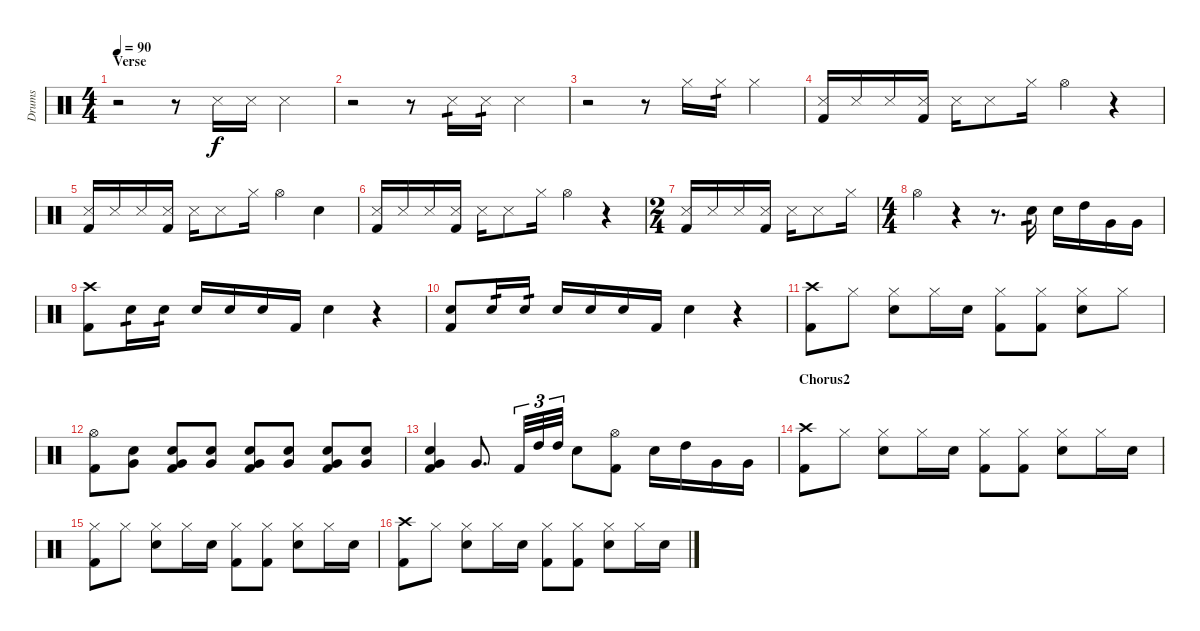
\track ("Drums" "Drums") {instrument percussion}
\staff {score}
\articulation defaults
\ts (4 4)
\section ("" "Verse")
\tempo 90
\clef neutral
\ks c
r.2{dy f} r.8 "Snare (side stick) 3".16 "Snare (side stick) 3".16 "Snare (side stick) 3".4 |
r.2 r.8 "Snare (side stick) 3".16{tp 1} "Snare (side stick) 3".16{tp 1} "Snare (side stick) 3".4 |
r.2 r.8 "Hi-Hat (closed)".16 "Hi-Hat (closed)".16{tp 1} "Hi-Hat (closed)".4 |
("Snare (side stick) 3" "Kick (hit) 2").16 "Snare (side stick) 3".16 "Metronome (hit)".16 ("Snare (side stick) 3" "Kick (hit) 2").16 "Snare (side stick) 3".16 "Metronome (hit)".8 "Hi-Hat (closed)".16 "Hi-Hat (open)".4 r.4 |
("Snare (side stick) 3" "Kick (hit) 2").16 "Snare (side stick) 3".16 "Metronome (hit)".16 ("Snare (side stick) 3" "Kick (hit) 2").16 "Snare (side stick) 3".16 "Metronome (hit)".8 "Hi-Hat (closed)".16 "Hi-Hat (open)".4 "Snare (hit) 2".4 |
("Snare (side stick) 3" "Kick (hit) 2").16 "Snare (side stick) 3".16 "Metronome (hit)".16 ("Snare (side stick) 3" "Kick (hit) 2").16 "Snare (side stick) 3".16 "Metronome (hit)".8 "Hi-Hat (closed)".16 "Hi-Hat (open)".4 r.4 |
\ts (2 4)
("Snare (side stick) 3" "Kick (hit) 2").16 "Snare (side stick) 3".16 "Metronome (hit)".16 ("Snare (side stick) 3" "Kick (hit) 2").16 "Snare (side stick) 3".16 "Metronome (hit)".8 "Hi-Hat (closed)".16 |
\ts (4 4)
"Hi-Hat (open)".4 r.4 r.8{d} "Snare (hit) 2".16{tp 1} "Snare (hit) 2".16 "High Tom (hit)".16 "Very Low Tom (hit)".16 "Very Low Tom (hit)".16 |
("Crash high (hit)" "Kick (hit) 2").8 "Snare (hit) 2".16{tp 1} "Snare (hit) 2".16{tp 1} "Snare (hit) 2".16 "Snare (hit) 2".16 "Snare (hit) 2".16 "Kick (hit) 2".16 "Snare (hit) 2".4 r.4 |
("Snare (hit) 2" "Kick (hit) 2").8 "Snare (hit) 2".16{tp 1} "Snare (hit) 2".16{tp 1} "Snare (hit) 2".16 "Snare (hit) 2".16 "Snare (hit) 2".16 "Kick (hit) 2".16 "Snare (hit) 2".4 r.4 |
("Crash high (hit)" "Kick (hit) 2").8 "Hi-Hat (closed)".8 ("Hi-Hat (closed)" "Snare (hit) 2").8 "Hi-Hat (closed)".16 "Snare (hit) 2".16 ("Hi-Hat (closed)" "Kick (hit) 2").8 ("Hi-Hat (closed)" "Kick (hit) 2").8 ("Hi-Hat (closed)" "Snare (hit) 2").8 "Hi-Hat (closed)".8 |
("Hi-Hat (open)" "Kick (hit) 2").8 ("Snare (hit) 2" "Very Low Tom (hit)").8 ("Snare (hit) 2" "Very Low Tom (hit)" "Kick (hit) 2").8 ("Snare (hit) 2" "Very Low Tom (hit)").8 ("Snare (hit) 2" "Very Low Tom (hit)" "Kick (hit) 2").8 ("Snare (hit) 2" "Very Low Tom (hit)").8 ("Snare (hit) 2" "Very Low Tom (hit)" "Kick (hit) 2").8 ("Snare (hit) 2" "Very Low Tom (hit)").8 |
("Snare (hit) 2" "Very Low Tom (hit)" "Kick (hit) 2").4 "Very Low Tom (hit)".8{d} "Kick (hit) 2".32{tu (3 2)} "High Tom (hit)".32{tu (3 2)} "High Tom (hit)".32{tu (3 2)} "Snare (hit) 2".8 ("Hi-Hat (open)" "Kick (hit) 2").8 "Snare (hit) 2".16 "High Tom (hit)".16 "Very Low Tom (hit)".16 "Very Low Tom (hit)".16 |
\section ("" "Chorus2")
("Crash high (hit)" "Kick (hit) 2").8 "Hi-Hat (closed)".8 ("Hi-Hat (closed)" "Snare (hit) 2").8 "Hi-Hat (closed)".16 "Snare (hit) 2".16 ("Hi-Hat (closed)" "Kick (hit) 2").8 ("Hi-Hat (closed)" "Kick (hit) 2").8 ("Hi-Hat (closed)" "Snare (hit) 2").8 "Hi-Hat (closed)".16 "Snare (hit) 2".16 |
("Hi-Hat (closed)" "Kick (hit) 2").8 "Hi-Hat (closed)".8 ("Hi-Hat (closed)" "Snare (hit) 2").8 "Hi-Hat (closed)".16 "Snare (hit) 2".16 ("Hi-Hat (closed)" "Kick (hit) 2").8 ("Hi-Hat (closed)" "Kick (hit) 2").8 ("Hi-Hat (closed)" "Snare (hit) 2").8 "Hi-Hat (closed)".16 "Snare (hit) 2".16 |
("Crash high (hit)" "Kick (hit) 2").8 "Hi-Hat (closed)".8 ("Hi-Hat (closed)" "Snare (hit) 2").8 "Hi-Hat (closed)".16 "Snare (hit) 2".16 ("Hi-Hat (closed)" "Kick (hit) 2").8 ("Hi-Hat (closed)" "Kick (hit) 2").8 ("Hi-Hat (closed)" "Snare (hit) 2").8 "Hi-Hat (closed)".16 "Snare (hit) 2".16
